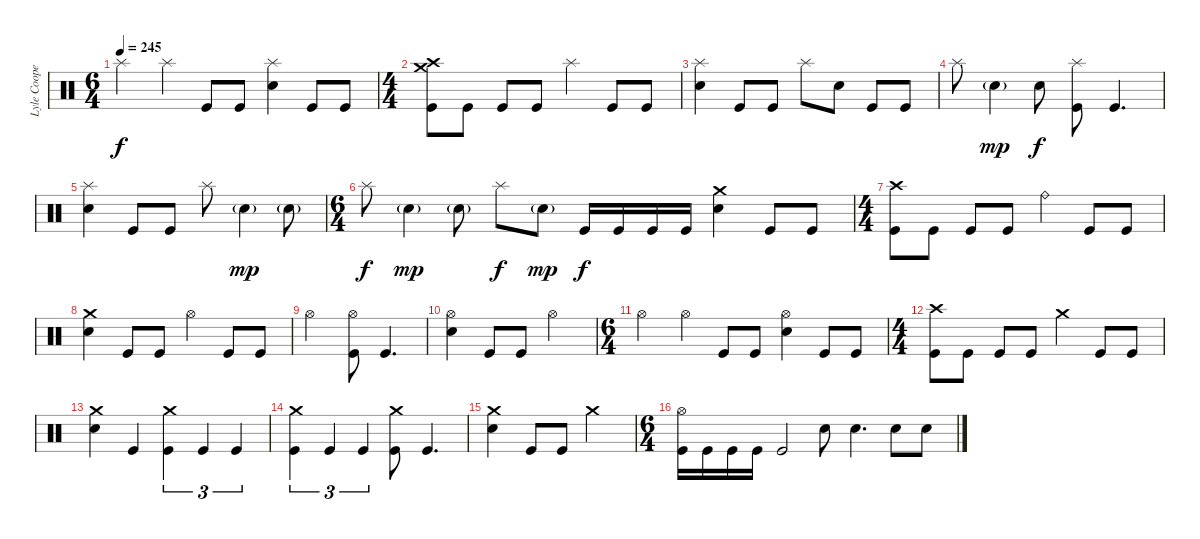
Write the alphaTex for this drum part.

\track ("Lyle Cooper" "Lyle Coope") {instrument percussion}
\staff {score}
\articulation defaults
\ts (6 4)
\tempo 245
\clef neutral
\ks c "Splash (hit)".2{dy f} "Splash (hit)".4 "Kick (hit)".8 "Kick (hit)".8
("Splash (hit)" "Snare (hit) 2").4 "Kick (hit)".8 "Kick (hit)".8 |
\ts (4 4)
("Crash high (hit)" "Crash medium (hit)" "Kick (hit)").8 "Kick (hit)".8 "Kick (hit)".8 "Kick (hit)".8 "Splash (hit)".4 "Kick (hit)".8 "Kick (hit)".8 |
("Splash (hit)" "Snare (hit) 2").4 "Kick (hit)".8 "Kick (hit)".8 "Splash (hit)".8 "Snare (hit) 2".8 "Kick (hit)".8 "Kick (hit)".8 |
"Splash (hit)".8 "Snare (hit) 2"{g}.4{dy mp} "Snare (hit) 2".8{dy f} ("Splash (hit)" "Kick (hit)").8 "Kick (hit)".4{d} |
("Splash (hit)" "Snare (hit) 2").4 "Kick (hit)".8 "Kick (hit)".8 "Splash (hit)".8 "Snare (hit) 2"{g}.4{dy mp} "Snare (hit) 2"{g}.8 |
\ts (6 4)
"Splash (hit)".8{dy f} "Snare (hit) 2"{g}.4{dy mp} "Snare (hit) 2"{g}.8 "Splash (hit)".8{dy f} "Snare (hit) 2"{g}.8{dy mp} "Kick (hit)".16{dy f} "Kick (hit)".16 "Kick (hit)".16 "Kick (hit)".16 ("Crash medium (hit)" "Snare (hit) 2").4 "Kick (hit)".8 "Kick (hit)".8 |
\ts (4 4)
("Crash high (hit)" "Kick (hit)").8 "Kick (hit)".8 "Kick (hit)".8 "Kick (hit)".8 "Ride (bell)".4 "Kick (hit)".8 "Kick (hit)".8 |
("Crash medium (hit)" "Snare (hit) 2").4 "Kick (hit)".8 "Kick (hit)".8 "Hi-Hat (open)".4 "Kick (hit)".8 "Kick (hit)".8 |
"Hi-Hat (open)".2 ("Hi-Hat (open)" "Kick (hit)").8 "Kick (hit)".4{d} |
("Hi-Hat (open)" "Snare (hit) 2").4 "Kick (hit)".8 "Kick (hit)".8 "Hi-Hat (open)".2 |
\ts (6 4)
"Hi-Hat (open)".2 "Hi-Hat (open)".4 "Kick (hit)".8 "Kick (hit)".8 ("Hi-Hat (open)" "Snare (hit) 2").4 "Kick (hit)".8 "Kick (hit)".8 |
\ts (4 4)
("Crash high (hit)" "Kick (hit)").8 "Kick (hit)".8 "Kick (hit)".8 "Kick (hit)".8 "Crash medium (hit)".4 "Kick (hit)".8 "Kick (hit)".8 |
("Crash medium (hit)" "Snare (hit) 2").4 "Kick (hit)".4 ("Crash medium (hit)" "Kick (hit)").4{tu (3 2)} "Kick (hit)".4{tu (3 2)} "Kick (hit)".4{tu (3 2)} |
("Crash medium (hit)" "Kick (hit)").4{tu (3 2)} "Kick (hit)".4{tu (3 2)} "Kick (hit)".4{tu (3 2)} ("Crash medium (hit)" "Kick (hit)").8 "Kick (hit)".4{d} |
("Crash medium (hit)" "Snare (hit) 2").4 "Kick (hit)".8 "Kick (hit)".8 "Crash medium (hit)".2 |
\ts (6 4)
("Hi-Hat (open)" "Kick (hit)").16 "Kick (hit)".16 "Kick (hit)".16 "Kick (hit)".16 "Kick (hit)".2 "Snare (hit) 2".8 "Snare (hit) 2".4{d} "Snare (hit) 2".8 "Snare (hit) 2".8
